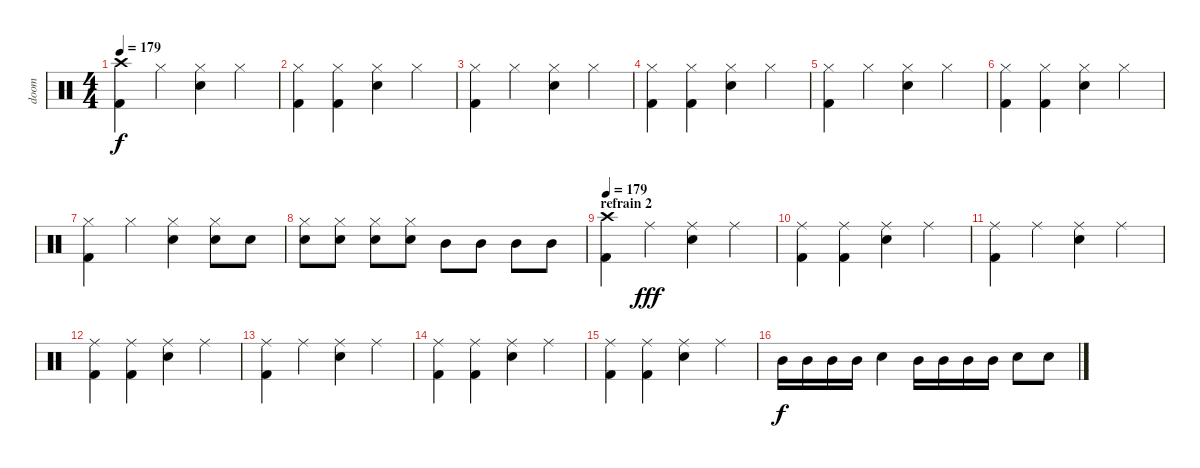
\track ("doom" "doom") {instrument percussion}
\staff {score}
\articulation defaults
\ts (4 4)
\tempo 179
\clef neutral
\ks c
("Crash high (hit)" "Kick (hit) 2").4{dy f} "Hi-Hat (closed)".4 ("Hi-Hat (closed)" "Snare (hit) 2").4 "Hi-Hat (closed)".4 |
("Hi-Hat (closed)" "Kick (hit) 2").4 ("Hi-Hat (closed)" "Kick (hit) 2").4 ("Hi-Hat (closed)" "Snare (hit) 2").4 "Hi-Hat (closed)".4 |
("Hi-Hat (closed)" "Kick (hit) 2").4 "Hi-Hat (closed)".4 ("Hi-Hat (closed)" "Snare (hit) 2").4 "Hi-Hat (closed)".4 |
("Hi-Hat (closed)" "Kick (hit) 2").4 ("Hi-Hat (closed)" "Kick (hit) 2").4 ("Hi-Hat (closed)" "Snare (hit) 2").4 "Hi-Hat (closed)".4 |
("Hi-Hat (closed)" "Kick (hit) 2").4 "Hi-Hat (closed)".4 ("Hi-Hat (closed)" "Snare (hit) 2").4 "Hi-Hat (closed)".4 |
("Hi-Hat (closed)" "Kick (hit) 2").4 ("Hi-Hat (closed)" "Kick (hit) 2").4 ("Hi-Hat (closed)" "Snare (hit) 2").4 "Hi-Hat (closed)".4 |
("Hi-Hat (closed)" "Kick (hit) 2").4 "Hi-Hat (closed)".4 ("Hi-Hat (closed)" "Snare (hit) 2").4 ("Hi-Hat (closed)" "Snare (hit) 2").8 "Snare (hit) 2".8 |
("Hi-Hat (closed)" "Snare (hit) 2").8 ("Hi-Hat (closed)" "Snare (hit) 2").8 ("Hi-Hat (closed)" "Snare (hit) 2").8 ("Hi-Hat (closed)" "Snare (hit) 2").8 "Mid Tom (hit)".8 "Mid Tom (hit)".8 "Mid Tom (hit)".8 "Mid Tom (hit)".8 |
\section ("" "refrain 2")
\tempo 179
("Crash high (hit)" "Kick (hit) 2").4 "Ride (middle)".4{dy fff} ("Ride (middle)" "Snare (hit) 2").4 "Ride (middle)".4 |
("Ride (middle)" "Kick (hit) 2").4 ("Ride (middle)" "Kick (hit) 2").4 ("Ride (middle)" "Snare (hit) 2").4 "Ride (middle)".4 |
("Ride (middle)" "Kick (hit) 2").4 "Ride (middle)".4 ("Ride (middle)" "Snare (hit) 2").4 "Ride (middle)".4 |
("Ride (middle)" "Kick (hit) 2").4 ("Ride (middle)" "Kick (hit) 2").4 ("Ride (middle)" "Snare (hit) 2").4 "Ride (middle)".4 |
("Ride (middle)" "Kick (hit) 2").4 "Ride (middle)".4 ("Ride (middle)" "Snare (hit) 2").4 "Ride (middle)".4 |
("Ride (middle)" "Kick (hit) 2").4 ("Ride (middle)" "Kick (hit) 2").4 ("Ride (middle)" "Snare (hit) 2").4 "Ride (middle)".4 |
("Ride (middle)" "Kick (hit) 2").4 ("Ride (middle)" "Kick (hit) 2").4 ("Ride (middle)" "Snare (hit) 2").4 "Ride (middle)".4 |
"Mid Tom (hit)".16{dy f} "Mid Tom (hit)".16 "Mid Tom (hit)".16 "Mid Tom (hit)".16 "Snare (hit) 2".4 "Mid Tom (hit)".16 "Mid Tom (hit)".16 "Mid Tom (hit)".16 "Mid Tom (hit)".16 "Snare (hit) 2".8 "Snare (hit) 2".8
